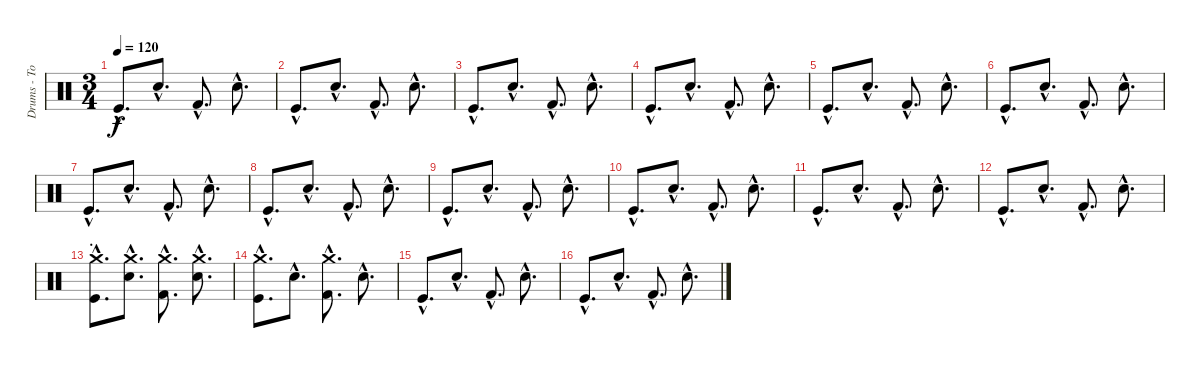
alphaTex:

\track ("Drums - Tom" "Drums - To") {instrument percussion}
\staff {score}
\articulation defaults
\ts (3 4)
\tempo 120
\clef neutral
\ks c "Kick (hit)"{hac}.8{d dy f} "Snare (hit) 2"{hac}.8{d} "Kick (hit) 2"{hac}.8{d} "Snare (hit) 2"{hac}.8{d}
|
"Kick (hit)"{hac}.8{d} "Snare (hit) 2"{hac}.8{d} "Kick (hit) 2"{hac}.8{d} "Snare (hit) 2"{hac}.8{d} |
"Kick (hit)"{hac}.8{d} "Snare (hit) 2"{hac}.8{d} "Kick (hit) 2"{hac}.8{d} "Snare (hit) 2"{hac}.8{d} |
"Kick (hit)"{hac}.8{d} "Snare (hit) 2"{hac}.8{d} "Kick (hit) 2"{hac}.8{d} "Snare (hit) 2"{hac}.8{d} |
"Kick (hit)"{hac}.8{d} "Snare (hit) 2"{hac}.8{d} "Kick (hit) 2"{hac}.8{d} "Snare (hit) 2"{hac}.8{d} |
"Kick (hit)"{hac}.8{d} "Snare (hit) 2"{hac}.8{d} "Kick (hit) 2"{hac}.8{d} "Snare (hit) 2"{hac}.8{d} |
"Kick (hit)"{hac}.8{d} "Snare (hit) 2"{hac}.8{d} "Kick (hit) 2"{hac}.8{d} "Snare (hit) 2"{hac}.8{d} |
"Kick (hit)"{hac}.8{d} "Snare (hit) 2"{hac}.8{d} "Kick (hit) 2"{hac}.8{d} "Snare (hit) 2"{hac}.8{d} |
"Kick (hit)"{hac}.8{d} "Snare (hit) 2"{hac}.8{d} "Kick (hit) 2"{hac}.8{d} "Snare (hit) 2"{hac}.8{d} |
"Kick (hit)"{hac}.8{d} "Snare (hit) 2"{hac}.8{d} "Kick (hit) 2"{hac}.8{d} "Snare (hit) 2"{hac}.8{d} |
"Kick (hit)"{hac}.8{d} "Snare (hit) 2"{hac}.8{d} "Kick (hit) 2"{hac}.8{d} "Snare (hit) 2"{hac}.8{d} |
"Kick (hit)"{hac}.8{d} "Snare (hit) 2"{hac}.8{d} "Kick (hit) 2"{hac}.8{d} "Snare (hit) 2"{hac}.8{d} |
\section ("" ".")
("Kick (hit)"{hac} "Crash medium (hit)"{hac}).8{d} ("Snare (hit) 2"{hac} "Crash medium (hit)"{hac}).8{d} ("Kick (hit) 2"{hac} "Crash medium (hit)"{hac}).8{d} ("Snare (hit) 2"{hac} "Crash medium (hit)"{hac}).8{d} |
("Kick (hit)"{hac} "Crash medium (hit)"{hac}).8{d} "Snare (hit) 2"{hac}.8{d} ("Kick (hit) 2"{hac} "Crash medium (hit)"{hac}).8{d} "Snare (hit) 2"{hac}.8{d} |
"Kick (hit)"{hac}.8{d} "Snare (hit) 2"{hac}.8{d} "Kick (hit) 2"{hac}.8{d} "Snare (hit) 2"{hac}.8{d} |
"Kick (hit)"{hac}.8{d} "Snare (hit) 2"{hac}.8{d} "Kick (hit) 2"{hac}.8{d} "Snare (hit) 2"{hac}.8{d}
